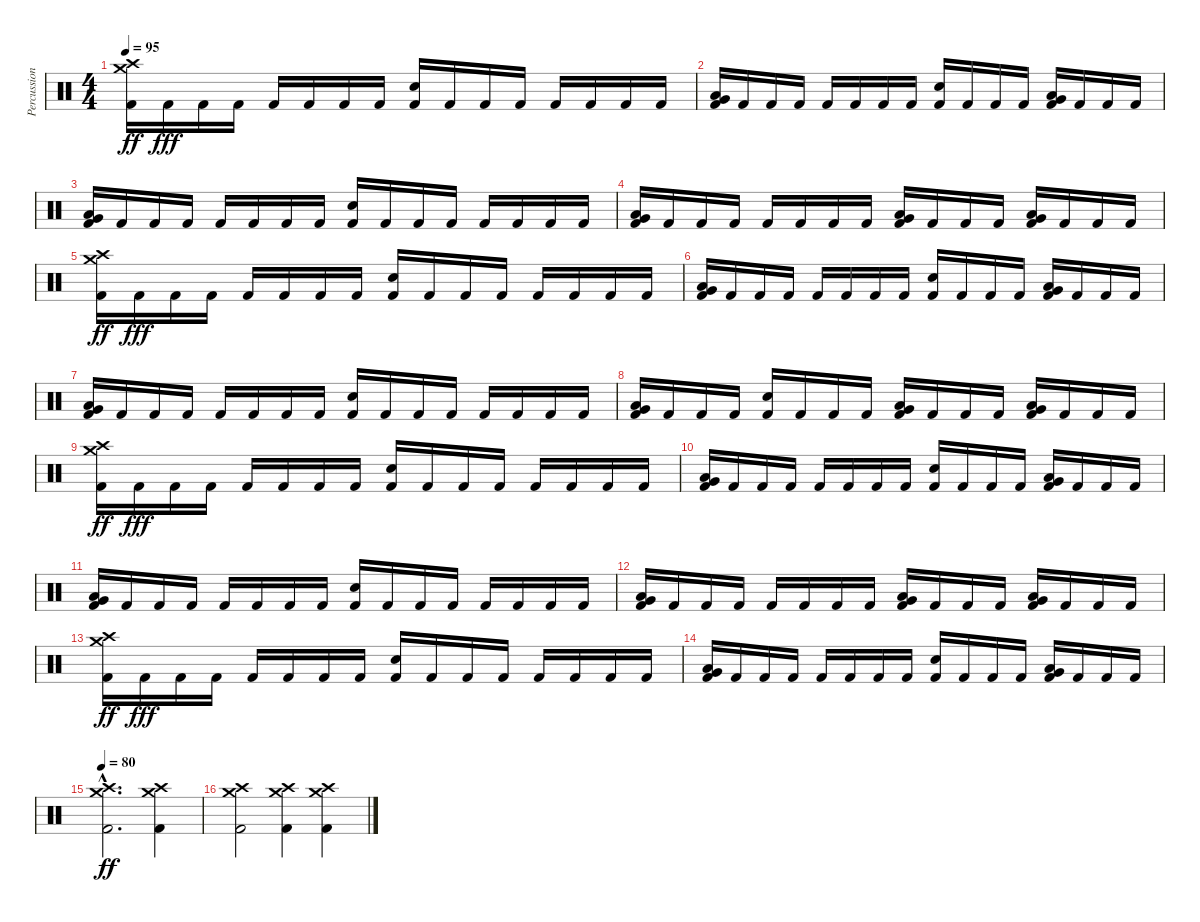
\track ("Percussion" "Percussion") {instrument percussion}
\staff {score}
\articulation defaults
\ts (4 4)
\tempo 95
\clef neutral
\ks c
("Kick (hit) 2" "Crash medium (hit)" "Crash high (hit)").16{dy ff} "Kick (hit) 2".16{dy fff} "Kick (hit) 2".16 "Kick (hit) 2".16 "Kick (hit) 2".16 "Kick (hit) 2".16 "Kick (hit) 2".16 "Kick (hit) 2".16 ("Kick (hit) 2" "Electric Snare (hit)").16 "Kick (hit) 2".16 "Kick (hit) 2".16 "Kick (hit) 2".16 "Kick (hit) 2".16 "Kick (hit) 2".16 "Kick (hit) 2".16 "Kick (hit) 2".16 |
("Kick (hit) 2" "Very Low Tom (hit)" "Low Tom (hit)").16 "Kick (hit) 2".16 "Kick (hit) 2".16 "Kick (hit) 2".16 "Kick (hit) 2".16 "Kick (hit) 2".16 "Kick (hit) 2".16 "Kick (hit) 2".16 ("Kick (hit) 2" "Electric Snare (hit)").16 "Kick (hit) 2".16 "Kick (hit) 2".16 "Kick (hit) 2".16 ("Kick (hit) 2" "Low Tom (hit)" "Very Low Tom (hit)").16 "Kick (hit) 2".16 "Kick (hit) 2".16 "Kick (hit) 2".16 |
("Kick (hit) 2" "Low Tom (hit)" "Very Low Tom (hit)").16 "Kick (hit) 2".16 "Kick (hit) 2".16 "Kick (hit) 2".16 "Kick (hit) 2".16 "Kick (hit) 2".16 "Kick (hit) 2".16 "Kick (hit) 2".16 ("Kick (hit) 2" "Electric Snare (hit)").16 "Kick (hit) 2".16 "Kick (hit) 2".16 "Kick (hit) 2".16 "Kick (hit) 2".16 "Kick (hit) 2".16 "Kick (hit) 2".16 "Kick (hit) 2".16 |
("Kick (hit) 2" "Low Tom (hit)" "Very Low Tom (hit)").16 "Kick (hit) 2".16 "Kick (hit) 2".16 "Kick (hit) 2".16 "Kick (hit) 2".16 "Kick (hit) 2".16 "Kick (hit) 2".16 "Kick (hit) 2".16 ("Kick (hit) 2" "Low Tom (hit)" "Very Low Tom (hit)").16 "Kick (hit) 2".16 "Kick (hit) 2".16 "Kick (hit) 2".16 ("Kick (hit) 2" "Low Tom (hit)" "Very Low Tom (hit)").16 "Kick (hit) 2".16 "Kick (hit) 2".16 "Kick (hit) 2".16 |
("Kick (hit) 2" "Crash medium (hit)" "Crash high (hit)").16{dy ff} "Kick (hit) 2".16{dy fff} "Kick (hit) 2".16 "Kick (hit) 2".16 "Kick (hit) 2".16 "Kick (hit) 2".16 "Kick (hit) 2".16 "Kick (hit) 2".16 ("Kick (hit) 2" "Electric Snare (hit)").16 "Kick (hit) 2".16 "Kick (hit) 2".16 "Kick (hit) 2".16 "Kick (hit) 2".16 "Kick (hit) 2".16 "Kick (hit) 2".16 "Kick (hit) 2".16 |
("Kick (hit) 2" "Very Low Tom (hit)" "Low Tom (hit)").16 "Kick (hit) 2".16 "Kick (hit) 2".16 "Kick (hit) 2".16 "Kick (hit) 2".16 "Kick (hit) 2".16 "Kick (hit) 2".16 "Kick (hit) 2".16 ("Kick (hit) 2" "Electric Snare (hit)").16 "Kick (hit) 2".16 "Kick (hit) 2".16 "Kick (hit) 2".16 ("Kick (hit) 2" "Low Tom (hit)" "Very Low Tom (hit)").16 "Kick (hit) 2".16 "Kick (hit) 2".16 "Kick (hit) 2".16 |
("Kick (hit) 2" "Low Tom (hit)" "Very Low Tom (hit)").16 "Kick (hit) 2".16 "Kick (hit) 2".16 "Kick (hit) 2".16 "Kick (hit) 2".16 "Kick (hit) 2".16 "Kick (hit) 2".16 "Kick (hit) 2".16 ("Kick (hit) 2" "Electric Snare (hit)").16 "Kick (hit) 2".16 "Kick (hit) 2".16 "Kick (hit) 2".16 "Kick (hit) 2".16 "Kick (hit) 2".16 "Kick (hit) 2".16 "Kick (hit) 2".16 |
("Kick (hit) 2" "Low Tom (hit)" "Very Low Tom (hit)").16 "Kick (hit) 2".16 "Kick (hit) 2".16 "Kick (hit) 2".16 ("Kick (hit) 2" "Electric Snare (hit)").16 "Kick (hit) 2".16 "Kick (hit) 2".16 "Kick (hit) 2".16 ("Kick (hit) 2" "Low Tom (hit)" "Very Low Tom (hit)").16 "Kick (hit) 2".16 "Kick (hit) 2".16 "Kick (hit) 2".16 ("Kick (hit) 2" "Low Tom (hit)" "Very Low Tom (hit)").16 "Kick (hit) 2".16 "Kick (hit) 2".16 "Kick (hit) 2".16 |
("Kick (hit) 2" "Crash medium (hit)" "Crash high (hit)").16{dy ff} "Kick (hit) 2".16{dy fff} "Kick (hit) 2".16 "Kick (hit) 2".16 "Kick (hit) 2".16 "Kick (hit) 2".16 "Kick (hit) 2".16 "Kick (hit) 2".16 ("Kick (hit) 2" "Electric Snare (hit)").16 "Kick (hit) 2".16 "Kick (hit) 2".16 "Kick (hit) 2".16 "Kick (hit) 2".16 "Kick (hit) 2".16 "Kick (hit) 2".16 "Kick (hit) 2".16 |
("Kick (hit) 2" "Very Low Tom (hit)" "Low Tom (hit)").16 "Kick (hit) 2".16 "Kick (hit) 2".16 "Kick (hit) 2".16 "Kick (hit) 2".16 "Kick (hit) 2".16 "Kick (hit) 2".16 "Kick (hit) 2".16 ("Kick (hit) 2" "Electric Snare (hit)").16 "Kick (hit) 2".16 "Kick (hit) 2".16 "Kick (hit) 2".16 ("Kick (hit) 2" "Low Tom (hit)" "Very Low Tom (hit)").16 "Kick (hit) 2".16 "Kick (hit) 2".16 "Kick (hit) 2".16 |
("Kick (hit) 2" "Low Tom (hit)" "Very Low Tom (hit)").16 "Kick (hit) 2".16 "Kick (hit) 2".16 "Kick (hit) 2".16 "Kick (hit) 2".16 "Kick (hit) 2".16 "Kick (hit) 2".16 "Kick (hit) 2".16 ("Kick (hit) 2" "Electric Snare (hit)").16 "Kick (hit) 2".16 "Kick (hit) 2".16 "Kick (hit) 2".16 "Kick (hit) 2".16 "Kick (hit) 2".16 "Kick (hit) 2".16 "Kick (hit) 2".16 |
("Kick (hit) 2" "Low Tom (hit)" "Very Low Tom (hit)").16 "Kick (hit) 2".16 "Kick (hit) 2".16 "Kick (hit) 2".16 "Kick (hit) 2".16 "Kick (hit) 2".16 "Kick (hit) 2".16 "Kick (hit) 2".16 ("Kick (hit) 2" "Low Tom (hit)" "Very Low Tom (hit)").16 "Kick (hit) 2".16 "Kick (hit) 2".16 "Kick (hit) 2".16 ("Kick (hit) 2" "Low Tom (hit)" "Very Low Tom (hit)").16 "Kick (hit) 2".16 "Kick (hit) 2".16 "Kick (hit) 2".16 |
("Kick (hit) 2" "Crash medium (hit)" "Crash high (hit)").16{dy ff} "Kick (hit) 2".16{dy fff} "Kick (hit) 2".16 "Kick (hit) 2".16 "Kick (hit) 2".16 "Kick (hit) 2".16 "Kick (hit) 2".16 "Kick (hit) 2".16 ("Kick (hit) 2" "Electric Snare (hit)").16 "Kick (hit) 2".16 "Kick (hit) 2".16 "Kick (hit) 2".16 "Kick (hit) 2".16 "Kick (hit) 2".16 "Kick (hit) 2".16 "Kick (hit) 2".16 |
("Kick (hit) 2" "Very Low Tom (hit)" "Low Tom (hit)").16 "Kick (hit) 2".16 "Kick (hit) 2".16 "Kick (hit) 2".16 "Kick (hit) 2".16 "Kick (hit) 2".16 "Kick (hit) 2".16 "Kick (hit) 2".16 ("Kick (hit) 2" "Electric Snare (hit)").16 "Kick (hit) 2".16 "Kick (hit) 2".16 "Kick (hit) 2".16 ("Kick (hit) 2" "Low Tom (hit)" "Very Low Tom (hit)").16 "Kick (hit) 2".16 "Kick (hit) 2".16 "Kick (hit) 2".16 |
\tempo 80
("Kick (hit) 2"{hac} "Crash medium (hit)"{hac} "Crash high (hit)"{hac}).2{d dy ff} ("Kick (hit) 2" "Crash medium (hit)" "Crash high (hit)").4 |
("Kick (hit) 2" "Crash medium (hit)" "Crash high (hit)").2 ("Kick (hit) 2" "Crash medium (hit)" "Crash high (hit)").4 ("Kick (hit) 2" "Crash medium (hit)" "Crash high (hit)").4
